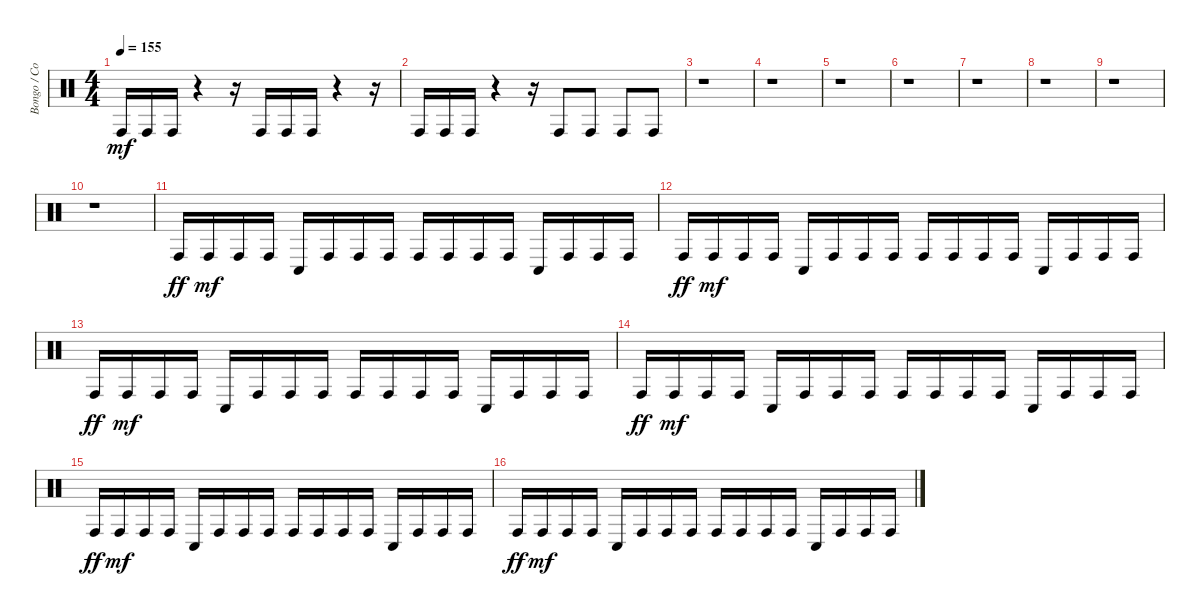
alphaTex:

\track ("Bongo / Conga" "Bongo / Co") {instrument percussion}
\staff {score}
\articulation defaults
\ts (4 4)
\tempo 155
\clef neutral
\ks c "Conga high (hit)".16{dy mf} "Conga high (hit)".16 "Conga high (hit)".16
r.4 r.16 "Conga high (hit)".16 "Conga high (hit)".16 "Conga high (hit)".16 r.4 r.16 |
"Conga high (hit)".16 "Conga high (hit)".16 "Conga high (hit)".16 r.4 r.16 "Conga high (hit)".8 "Conga high (hit)".8 "Conga high (hit)".8 "Conga high (hit)".8 |
r.1 |
r.1 |
r.1 |
r.1 |
r.1 |
r.1 |
r.1 |
r.1 |
"Conga high (hit)".16{dy ff} "Conga high (hit)".16{dy mf} "Conga high (hit)".16 "Conga high (hit)".16 "Conga low (hit)".16 "Conga high (hit)".16 "Conga high (hit)".16 "Conga high (hit)".16 "Conga high (hit)".16 "Conga high (hit)".16 "Conga high (hit)".16 "Conga high (hit)".16 "Conga low (hit)".16 "Conga high (hit)".16 "Conga high (hit)".16 "Conga high (hit)".16 |
"Conga high (hit)".16{dy ff} "Conga high (hit)".16{dy mf} "Conga high (hit)".16 "Conga high (hit)".16 "Conga low (hit)".16 "Conga high (hit)".16 "Conga high (hit)".16 "Conga high (hit)".16 "Conga high (hit)".16 "Conga high (hit)".16 "Conga high (hit)".16 "Conga high (hit)".16 "Conga low (hit)".16 "Conga high (hit)".16 "Conga high (hit)".16 "Conga high (hit)".16 |
"Conga high (hit)".16{dy ff} "Conga high (hit)".16{dy mf} "Conga high (hit)".16 "Conga high (hit)".16 "Conga low (hit)".16 "Conga high (hit)".16 "Conga high (hit)".16 "Conga high (hit)".16 "Conga high (hit)".16 "Conga high (hit)".16 "Conga high (hit)".16 "Conga high (hit)".16 "Conga low (hit)".16 "Conga high (hit)".16 "Conga high (hit)".16 "Conga high (hit)".16 |
"Conga high (hit)".16{dy ff} "Conga high (hit)".16{dy mf} "Conga high (hit)".16 "Conga high (hit)".16 "Conga low (hit)".16 "Conga high (hit)".16 "Conga high (hit)".16 "Conga high (hit)".16 "Conga high (hit)".16 "Conga high (hit)".16 "Conga high (hit)".16 "Conga high (hit)".16 "Conga low (hit)".16 "Conga high (hit)".16 "Conga high (hit)".16 "Conga high (hit)".16 |
"Conga high (hit)".16{dy ff} "Conga high (hit)".16{dy mf} "Conga high (hit)".16 "Conga high (hit)".16 "Conga low (hit)".16 "Conga high (hit)".16 "Conga high (hit)".16 "Conga high (hit)".16 "Conga high (hit)".16 "Conga high (hit)".16 "Conga high (hit)".16 "Conga high (hit)".16 "Conga low (hit)".16 "Conga high (hit)".16 "Conga high (hit)".16 "Conga high (hit)".16 |
"Conga high (hit)".16{dy ff} "Conga high (hit)".16{dy mf} "Conga high (hit)".16 "Conga high (hit)".16 "Conga low (hit)".16 "Conga high (hit)".16 "Conga high (hit)".16 "Conga high (hit)".16 "Conga high (hit)".16 "Conga high (hit)".16 "Conga high (hit)".16 "Conga high (hit)".16 "Conga low (hit)".16 "Conga high (hit)".16 "Conga high (hit)".16 "Conga high (hit)".16
